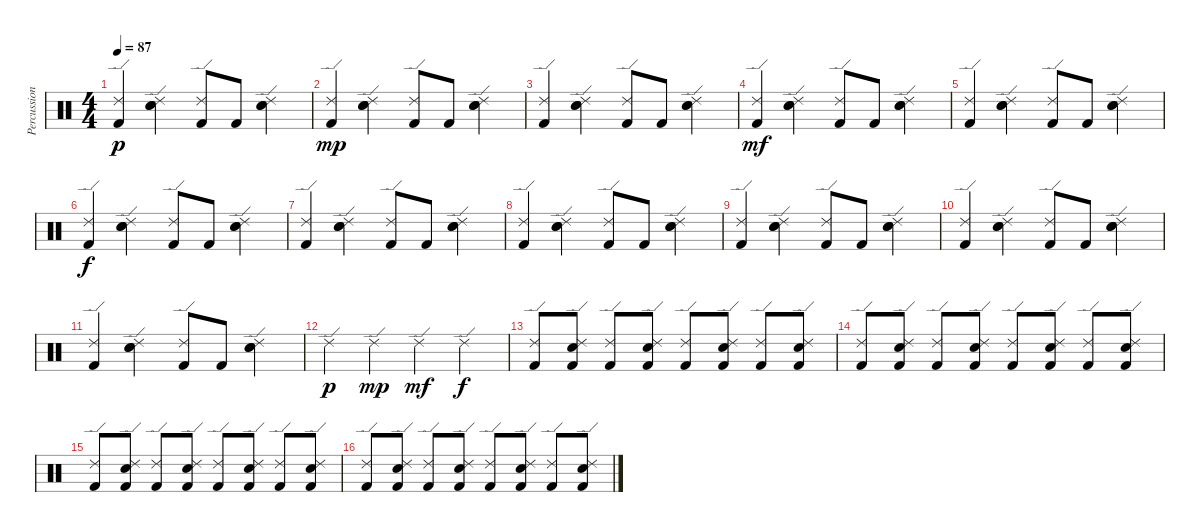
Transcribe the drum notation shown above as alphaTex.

\track ("Percussion" "Percussion") {instrument percussion}
\staff {score}
\articulation defaults
\ts (4 4)
\tempo 87
\clef neutral
\ks c
("Ride (edge) 2" "Kick (hit) 2").4{dy p} ("Ride (edge) 2" "Hand Clap (hit)" "Snare (hit) 2").4 ("Ride (edge) 2" "Kick (hit) 2").8 "Kick (hit) 2".8 ("Ride (edge) 2" "Hand Clap (hit)" "Snare (hit) 2").4 |
("Ride (edge) 2" "Kick (hit) 2").4{dy mp} ("Ride (edge) 2" "Hand Clap (hit)" "Snare (hit) 2").4 ("Ride (edge) 2" "Kick (hit) 2").8 "Kick (hit) 2".8 ("Ride (edge) 2" "Hand Clap (hit)" "Snare (hit) 2").4 |
("Ride (edge) 2" "Kick (hit) 2").4 ("Ride (edge) 2" "Hand Clap (hit)" "Snare (hit) 2").4 ("Ride (edge) 2" "Kick (hit) 2").8 "Kick (hit) 2".8 ("Ride (edge) 2" "Hand Clap (hit)" "Snare (hit) 2").4 |
("Ride (edge) 2" "Kick (hit) 2").4{dy mf} ("Ride (edge) 2" "Hand Clap (hit)" "Snare (hit) 2").4 ("Ride (edge) 2" "Kick (hit) 2").8 "Kick (hit) 2".8 ("Ride (edge) 2" "Hand Clap (hit)" "Snare (hit) 2").4 |
("Ride (edge) 2" "Kick (hit) 2").4 ("Ride (edge) 2" "Hand Clap (hit)" "Snare (hit) 2").4 ("Ride (edge) 2" "Kick (hit) 2").8 "Kick (hit) 2".8 ("Ride (edge) 2" "Hand Clap (hit)" "Snare (hit) 2").4 |
("Ride (edge) 2" "Kick (hit) 2").4{dy f} ("Ride (edge) 2" "Hand Clap (hit)" "Snare (hit) 2").4 ("Ride (edge) 2" "Kick (hit) 2").8 "Kick (hit) 2".8 ("Ride (edge) 2" "Hand Clap (hit)" "Snare (hit) 2").4 |
("Ride (edge) 2" "Kick (hit) 2").4 ("Ride (edge) 2" "Hand Clap (hit)" "Snare (hit) 2").4 ("Ride (edge) 2" "Kick (hit) 2").8 "Kick (hit) 2".8 ("Ride (edge) 2" "Hand Clap (hit)" "Snare (hit) 2").4 |
("Ride (edge) 2" "Kick (hit) 2").4 ("Ride (edge) 2" "Hand Clap (hit)" "Snare (hit) 2").4 ("Ride (edge) 2" "Kick (hit) 2").8 "Kick (hit) 2".8 ("Ride (edge) 2" "Hand Clap (hit)" "Snare (hit) 2").4 |
("Ride (edge) 2" "Kick (hit) 2").4 ("Ride (edge) 2" "Hand Clap (hit)" "Snare (hit) 2").4 ("Ride (edge) 2" "Kick (hit) 2").8 "Kick (hit) 2".8 ("Ride (edge) 2" "Hand Clap (hit)" "Snare (hit) 2").4 |
("Ride (edge) 2" "Kick (hit) 2").4 ("Ride (edge) 2" "Hand Clap (hit)" "Snare (hit) 2").4 ("Ride (edge) 2" "Kick (hit) 2").8 "Kick (hit) 2".8 ("Ride (edge) 2" "Hand Clap (hit)" "Snare (hit) 2").4 |
("Ride (edge) 2" "Kick (hit) 2").4 ("Ride (edge) 2" "Hand Clap (hit)" "Snare (hit) 2").4 ("Ride (edge) 2" "Kick (hit) 2").8 "Kick (hit) 2".8 ("Ride (edge) 2" "Hand Clap (hit)" "Snare (hit) 2").4 |
"Ride (edge) 2".4{dy p} "Ride (edge) 2".4{dy mp} "Ride (edge) 2".4{dy mf} "Ride (edge) 2".4{dy f} |
("Ride (edge) 2" "Kick (hit) 2").8 ("Ride (edge) 2" "Snare (hit) 2" "Kick (hit) 2").8 ("Ride (edge) 2" "Kick (hit) 2").8 ("Ride (edge) 2" "Snare (hit) 2" "Kick (hit) 2").8 ("Ride (edge) 2" "Kick (hit) 2").8 ("Ride (edge) 2" "Snare (hit) 2" "Kick (hit) 2").8 ("Ride (edge) 2" "Kick (hit) 2").8 ("Ride (edge) 2" "Snare (hit) 2" "Kick (hit) 2").8 |
("Ride (edge) 2" "Kick (hit) 2").8 ("Ride (edge) 2" "Snare (hit) 2" "Kick (hit) 2").8 ("Ride (edge) 2" "Kick (hit) 2").8 ("Ride (edge) 2" "Snare (hit) 2" "Kick (hit) 2").8 ("Ride (edge) 2" "Kick (hit) 2").8 ("Ride (edge) 2" "Snare (hit) 2" "Kick (hit) 2").8 ("Ride (edge) 2" "Kick (hit) 2").8 ("Ride (edge) 2" "Snare (hit) 2" "Kick (hit) 2").8 |
("Ride (edge) 2" "Kick (hit) 2").8 ("Ride (edge) 2" "Snare (hit) 2" "Kick (hit) 2").8 ("Ride (edge) 2" "Kick (hit) 2").8 ("Ride (edge) 2" "Snare (hit) 2" "Kick (hit) 2").8 ("Ride (edge) 2" "Kick (hit) 2").8 ("Ride (edge) 2" "Snare (hit) 2" "Kick (hit) 2").8 ("Ride (edge) 2" "Kick (hit) 2").8 ("Ride (edge) 2" "Snare (hit) 2" "Kick (hit) 2").8 |
("Ride (edge) 2" "Kick (hit) 2").8 ("Ride (edge) 2" "Snare (hit) 2" "Kick (hit) 2").8 ("Ride (edge) 2" "Kick (hit) 2").8 ("Ride (edge) 2" "Snare (hit) 2" "Kick (hit) 2").8 ("Ride (edge) 2" "Kick (hit) 2").8 ("Ride (edge) 2" "Snare (hit) 2" "Kick (hit) 2").8 ("Ride (edge) 2" "Kick (hit) 2").8 ("Ride (edge) 2" "Snare (hit) 2" "Kick (hit) 2").8
